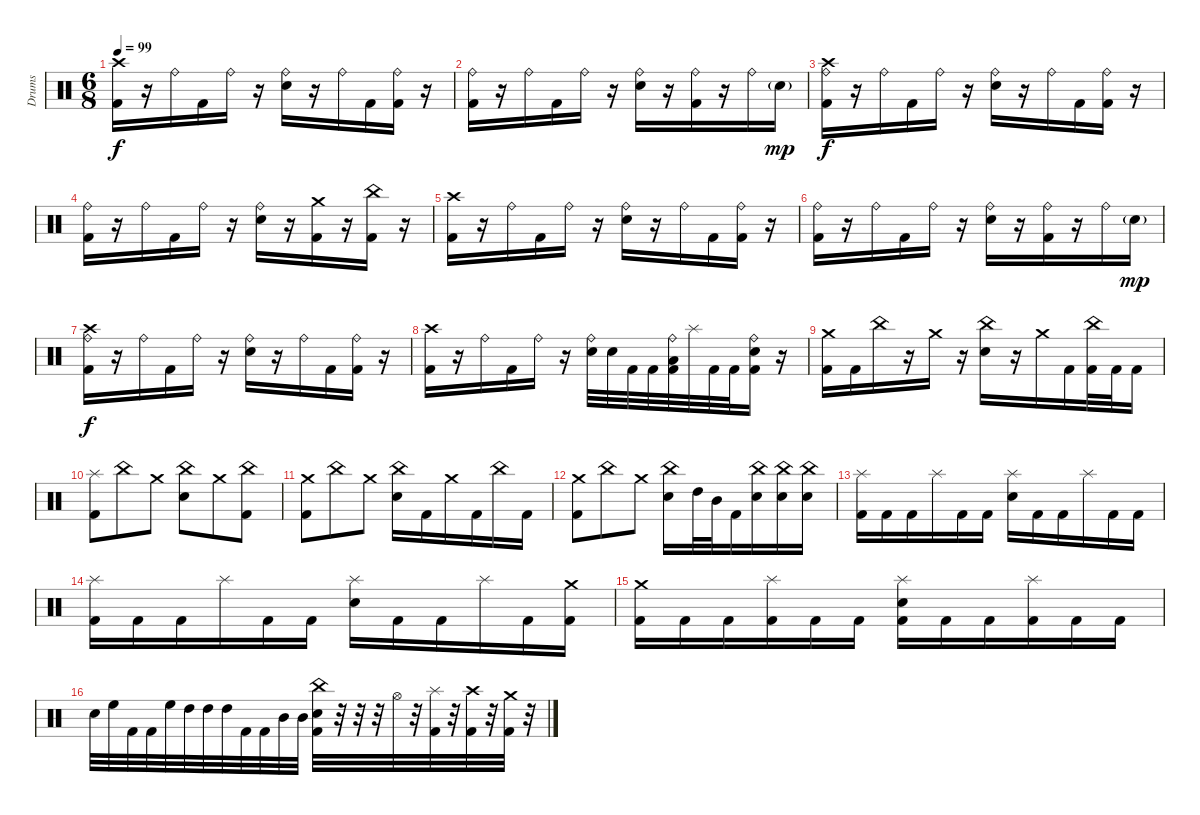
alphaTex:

\track ("Drums" "Drums") {instrument percussion}
\staff {score}
\articulation defaults
\ts (6 8)
\tempo 99
\clef neutral
\ks c
("Crash high (hit)" "Kick (hit) 2").16{dy f} r.16 "Ride (bell)".16 "Kick (hit) 2".16 "Ride (bell)".16 r.16 ("Ride (bell)" "Electric Snare (hit)").16 r.16 "Ride (bell)".16 "Kick (hit) 2".16 ("Ride (bell)" "Kick (hit) 2").16 r.16 |
("Ride (bell)" "Kick (hit) 2").16 r.16 "Ride (bell)".16 "Kick (hit) 2".16 "Ride (bell)".16 r.16 ("Ride (bell)" "Electric Snare (hit)").16 r.16 ("Ride (bell)" "Kick (hit) 2").16 r.16 "Ride (bell)".16 "Electric Snare (hit)"{g}.16{dy mp} |
("Crash high (hit)" "Ride (bell)" "Kick (hit) 2").16{dy f} r.16 "Ride (bell)".16 "Kick (hit) 2".16 "Ride (bell)".16 r.16 ("Ride (bell)" "Electric Snare (hit)").16 r.16 "Ride (bell)".16 "Kick (hit) 2".16 ("Ride (bell)" "Kick (hit) 2").16 r.16 |
("Ride (bell)" "Kick (hit) 2").16 r.16 "Ride (bell)".16 "Kick (hit) 2".16 "Ride (bell)".16 r.16 ("Ride (bell)" "Electric Snare (hit)").16 r.16 ("Crash medium (hit)" "Kick (hit) 2").16 r.16 ("China (hit)" "Kick (hit) 2").16 r.16 |
("Crash high (hit)" "Kick (hit) 2").16 r.16 "Ride (bell)".16 "Kick (hit) 2".16 "Ride (bell)".16 r.16 ("Ride (bell)" "Electric Snare (hit)").16 r.16 "Ride (bell)".16 "Kick (hit) 2".16 ("Ride (bell)" "Kick (hit) 2").16 r.16 |
("Ride (bell)" "Kick (hit) 2").16 r.16 "Ride (bell)".16 "Kick (hit) 2".16 "Ride (bell)".16 r.16 ("Ride (bell)" "Electric Snare (hit)").16 r.16 ("Ride (bell)" "Kick (hit) 2").16 r.16 "Ride (bell)".16 "Electric Snare (hit)"{g}.16{dy mp} |
("Crash high (hit)" "Ride (bell)" "Kick (hit) 2").16{dy f} r.16 "Ride (bell)".16 "Kick (hit) 2".16 "Ride (bell)".16 r.16 ("Ride (bell)" "Electric Snare (hit)").16 r.16 "Ride (bell)".16 "Kick (hit) 2".16 ("Ride (bell)" "Kick (hit) 2").16 r.16 |
("Crash high (hit)" "Kick (hit) 2").16 r.16 "Ride (bell)".16 "Kick (hit) 2".16 "Ride (bell)".16 r.16 ("Ride (bell)" "Electric Snare (hit)").32 "Electric Snare (hit)".32 "Kick (hit) 2".32 "Kick (hit) 2".32 ("Ride (bell)" "Low Tom (hit)" "Kick (hit) 2").32 "Splash (hit)".32 "Kick (hit) 2".32 "Kick (hit) 2".32 ("Ride (bell)" "Electric Snare (hit)" "Kick (hit) 2").16 r.16 |
("Crash medium (hit)" "Kick (hit) 2").16 "Kick (hit) 2".16 "China (hit)".16 r.16 "Crash medium (hit)".16 r.16 ("China (hit)" "Electric Snare (hit)").16 r.16 "Crash medium (hit)".16 "Kick (hit) 2".16 ("China (hit)" "Kick (hit) 2").32 "Kick (hit) 2".32 "Kick (hit) 2".16 |
("Splash (hit)" "Kick (hit) 2").8 "China (hit)".8 "Crash medium (hit)".8 ("China (hit)" "Electric Snare (hit)").8 "Crash medium (hit)".8 ("China (hit)" "Kick (hit) 2").8 |
("Crash medium (hit)" "Kick (hit) 2").8 "China (hit)".8 "Crash medium (hit)".8 ("China (hit)" "Electric Snare (hit)").16 "Kick (hit) 2".16 "Crash medium (hit)".16 "Kick (hit) 2".16 "China (hit)".16 "Kick (hit) 2".16 |
("Crash medium (hit)" "Kick (hit) 2").8 "China (hit)".8 "Crash medium (hit)".8 ("China (hit)" "Electric Snare (hit)").16 "High Tom (hit)".32 "Mid Tom (hit)".32 "Kick (hit) 2".16 ("China (hit)" "Electric Snare (hit)").16 ("China (hit)" "Electric Snare (hit)").16 ("China (hit)" "Electric Snare (hit)").16 |
("Splash (hit)" "Kick (hit) 2").16 "Kick (hit) 2".16 "Kick (hit) 2".16 "Splash (hit)".16 "Kick (hit) 2".16 "Kick (hit) 2".16 ("Splash (hit)" "Electric Snare (hit)").16 "Kick (hit) 2".16 "Kick (hit) 2".16 "Splash (hit)".16 "Kick (hit) 2".16 "Kick (hit) 2".16 |
("Splash (hit)" "Kick (hit) 2").16 "Kick (hit) 2".16 "Kick (hit) 2".16 "Splash (hit)".16 "Kick (hit) 2".16 "Kick (hit) 2".16 ("Splash (hit)" "Electric Snare (hit)").16 "Kick (hit) 2".16 "Kick (hit) 2".16 "Splash (hit)".16 "Kick (hit) 2".16 ("Crash medium (hit)" "Kick (hit) 2").16 |
("Crash medium (hit)" "Kick (hit) 2").16 "Kick (hit) 2".16 "Kick (hit) 2".16 ("Splash (hit)" "Kick (hit) 2").16 "Kick (hit) 2".16 "Kick (hit) 2".16 ("Splash (hit)" "Electric Snare (hit)" "Kick (hit) 2").16 "Kick (hit) 2".16 "Kick (hit) 2".16 ("Splash (hit)" "Kick (hit) 2").16 "Kick (hit) 2".16 "Kick (hit) 2".16 |
"Electric Snare (hit)".32 "High Floor Tom (hit)".32 "Kick (hit) 2".32 "Kick (hit) 2".32 "High Floor Tom (hit)".32 "High Tom (hit)".32 "High Tom (hit)".32 "High Tom (hit)".32 "Kick (hit) 2".32 "Kick (hit) 2".32 "Mid Tom (hit)".32 "Mid Tom (hit)".32 ("China (hit)" "Electric Snare (hit)" "Kick (hit) 2").32 r.32 r.32 r.32 "Hi-Hat (open)".32 r.32 ("Splash (hit)" "Kick (hit) 2").32 r.32 ("Crash high (hit)" "Kick (hit) 2").32 r.32 ("Crash medium (hit)" "Kick (hit) 2").32 r.32
